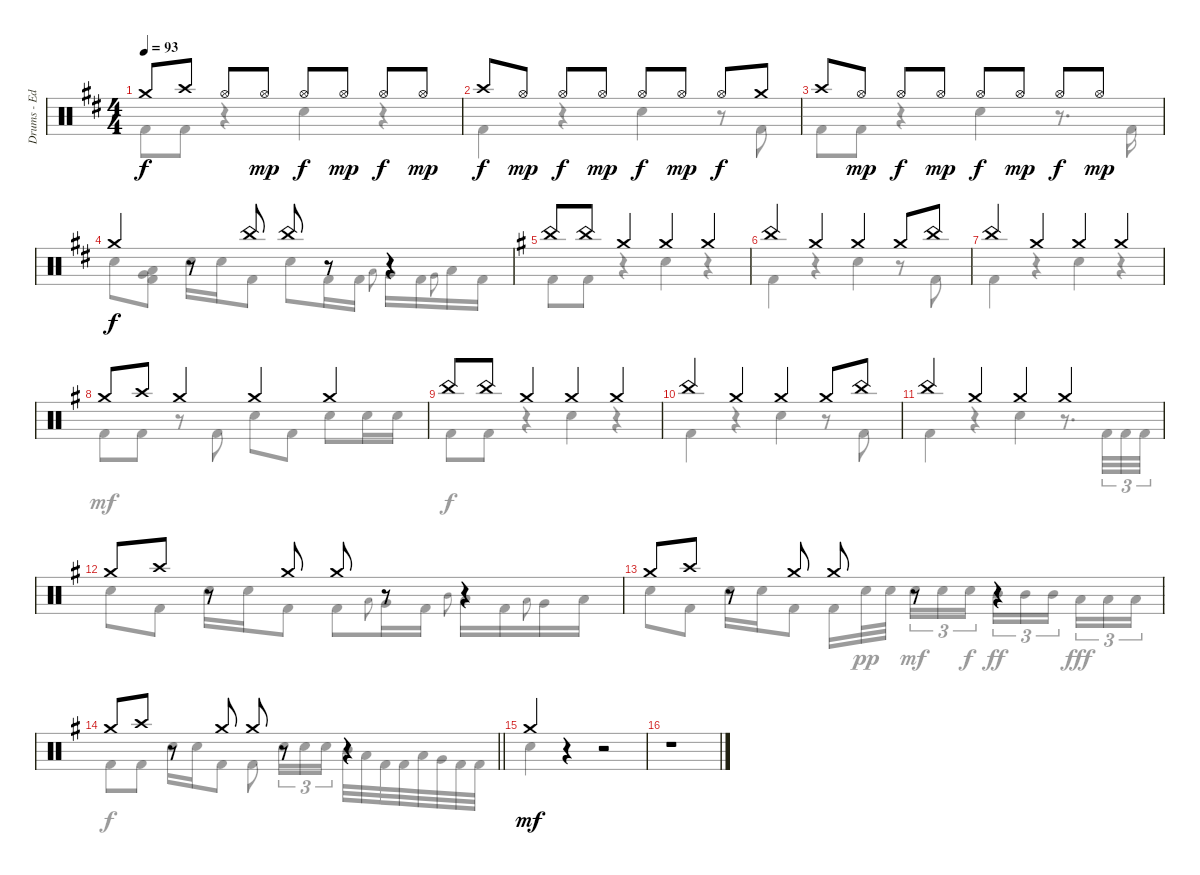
\track ("Drums - Ed Warby" "Drums - Ed") {instrument percussion}
\staff {score}
\articulation defaults
\voice
\ts (4 4)
\tempo 93
\clef neutral
\ks bminor "Crash medium (hit)".8{dy f} "Crash high (hit)".8 "Hi-Hat (open)".8 "Hi-Hat (open)".8{dy mp} "Hi-Hat (open)".8{dy f} "Hi-Hat (open)".8{dy mp} "Hi-Hat (open)".8{dy f} "Hi-Hat (open)".8{dy mp}
|
"Crash high (hit)".8{dy f} "Hi-Hat (open)".8{dy mp} "Hi-Hat (open)".8{dy f} "Hi-Hat (open)".8{dy mp} "Hi-Hat (open)".8{dy f} "Hi-Hat (open)".8{dy mp} "Hi-Hat (open)".8{dy f} "Crash medium (hit)".8 |
"Crash high (hit)".8 "Hi-Hat (open)".8{dy mp} "Hi-Hat (open)".8{dy f} "Hi-Hat (open)".8{dy mp} "Hi-Hat (open)".8{dy f} "Hi-Hat (open)".8{dy mp} "Hi-Hat (open)".8{dy f} "Hi-Hat (open)".8{dy mp} |
"Crash medium (hit)".4{dy f} r.8 "China (hit)".8 "China (hit)".8 r.8 r.4 |
\ks eminor "China (hit)".8 "China (hit)".8 "Crash medium (hit)".4 "Crash medium (hit)".4 "Crash medium (hit)".4
|
"China (hit)".4 "Crash medium (hit)".4 "Crash medium (hit)".4 "Crash medium (hit)".8 "China (hit)".8 |
"China (hit)".4 "Crash medium (hit)".4 "Crash medium (hit)".4 "Crash medium (hit)".4 |
"Crash medium (hit)".8 "Crash high (hit)".8 "Crash medium (hit)".4 "Crash medium (hit)".4 "Crash medium (hit)".4 |
"China (hit)".8 "China (hit)".8 "Crash medium (hit)".4 "Crash medium (hit)".4 "Crash medium (hit)".4 |
"China (hit)".4 "Crash medium (hit)".4 "Crash medium (hit)".4 "Crash medium (hit)".8 "China (hit)".8 |
"China (hit)".4 "Crash medium (hit)".4 "Crash medium (hit)".4 "Crash medium (hit)".4 |
"Crash medium (hit)".8 "Crash high (hit)".8 r.8 "Crash medium (hit)".8 "Crash medium (hit)".8 r.8 r.4 |
"Crash medium (hit)".8 "Crash high (hit)".8 r.8 "Crash medium (hit)".8 "Crash medium (hit)".8 r.8 r.4 |
\barLineRight lightlight "Crash medium (hit)".8 "Crash high (hit)".8
r.8 "Crash medium (hit)".8 "Crash medium (hit)".8 r.8 r.4 |
"Crash medium (hit)".4{dy mf} r.4 r.2 |
r.1
\voice
\clef neutral
\ottava regular
\simile none
\ks bminor "Kick (hit) 2".8{dy f} "Kick (hit) 2".8
r.4 "Snare (hit) 2".4 r.4 |
"Kick (hit) 2".4 r.4 "Snare (hit) 2".4 r.8 "Kick (hit) 2".8 |
"Kick (hit) 2".8 "Kick (hit) 2".8{dy mp} r.4 "Snare (hit) 2".4{dy f} r.8{d} "Kick (hit) 2".16 |
"Snare (hit) 2".8 ("Low Tom (hit)" "Very Low Tom (hit)" "Kick (hit) 2").8 "Snare (hit) 2".16 "Snare (hit) 2".16 "Kick (hit) 2".8 "Snare (hit) 2".8 "Kick (hit) 2".16 "Kick (hit) 2".16 "Low Tom (hit)".8{gr onbeat} "Very Low Tom (hit)".16 "Kick (hit) 2".16 "Very Low Tom (hit)".8{gr onbeat} "Low Floor Tom (hit)".16 "Kick (hit) 2".16 |
\ks eminor "Kick (hit) 2".8 "Kick (hit) 2".8
r.4 "Snare (hit) 2".4 r.4 |
"Kick (hit) 2".4 r.4 "Snare (hit) 2".4 r.8 "Kick (hit) 2".8 |
"Kick (hit) 2".4 r.4 "Snare (hit) 2".4 r.4 |
"Kick (hit) 2".8{dy mf} "Kick (hit) 2".8 r.8 "Kick (hit) 2".8 "Snare (hit) 2".8 "Kick (hit) 2".8 "Snare (hit) 2".8 "Snare (hit) 2".16 "Snare (hit) 2".16 |
"Kick (hit) 2".8{dy f} "Kick (hit) 2".8 r.4 "Snare (hit) 2".4 r.4 |
"Kick (hit) 2".4 r.4 "Snare (hit) 2".4 r.8 "Kick (hit) 2".8 |
"Kick (hit) 2".4 r.4 "Snare (hit) 2".4 r.8{d} "Kick (hit) 2".32{tu (3 2)} "Kick (hit) 2".32{tu (3 2)} "Kick (hit) 2".32{tu (3 2)} |
"Snare (hit) 2".8 "Kick (hit) 2".8 "Snare (hit) 2".16 "Snare (hit) 2".16 "Kick (hit) 2".8 "Kick (hit) 2".8 "Low Tom (hit)".8{gr onbeat} "Very Low Tom (hit)".16 "Kick (hit) 2".16 "Mid Tom (hit)".8{gr onbeat} "Low Tom (hit)".16 "Kick (hit) 2".16 "Low Tom (hit)".8{gr onbeat} "Very Low Tom (hit)".16 "Low Floor Tom (hit)".16 |
"Snare (hit) 2".8 "Kick (hit) 2".8 "Snare (hit) 2".16 "Snare (hit) 2".16 "Kick (hit) 2".8 "Kick (hit) 2".16 "Snare (hit) 2".32{dy pp} "Snare (hit) 2".32{beam splitsecondary} "Snare (hit) 2".16{tu (3 2) dy mf} "Snare (hit) 2".16{tu (3 2)} "Snare (hit) 2".16{tu (3 2) dy f} "Mid Tom (hit)".16{tu (3 2) dy ff} "Mid Tom (hit)".16{tu (3 2)} "Mid Tom (hit)".16{tu (3 2) beam splitsecondary} "Low Tom (hit)".16{tu (3 2) dy fff} "Low Tom (hit)".16{tu (3 2)} "Low Tom (hit)".16{tu (3 2)} |
\barLineRight lightlight "Kick (hit) 2".8{dy f} "Kick (hit) 2".8 "Snare (hit) 2".16 "Snare (hit) 2".16 "Kick (hit) 2".8 "Kick (hit) 2".8 "Snare (hit) 2".16{tu (3 2)} "Snare (hit) 2".16{tu (3 2)} "Snare (hit) 2".16{tu (3 2)} "Mid Tom (hit)".32 "Low Tom (hit)".32 "Kick (hit) 2".32 "Kick (hit) 2".32 "Low Tom (hit)".32 "Very Low Tom (hit)".32 "Kick (hit) 2".32 "Kick (hit) 2".32
|
"Snare (hit) 2".4{dy mf} r.4 r.2 |
